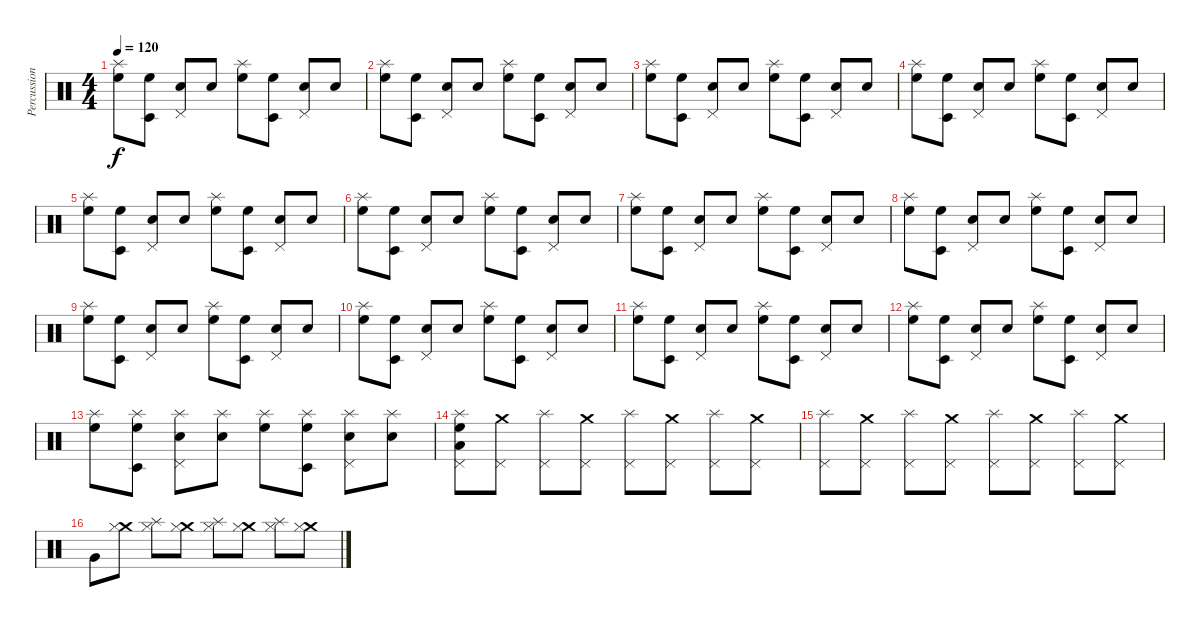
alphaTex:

\track ("Percussion" "Percussion") {instrument percussion}
\staff {score}
\articulation defaults
\ts (4 4)
\tempo 120
\clef neutral
\ks c
("Splash (hit)" "High Floor Tom (hit)").8{dy f} ("Timbale low (hit)" "High Floor Tom (hit)").8 ("Pedal Hi-Hat (hit)" "Electric Snare (hit)").8 "Electric Snare (hit)".8 ("Splash (hit)" "High Floor Tom (hit)").8 ("Timbale low (hit)" "High Floor Tom (hit)").8 ("Pedal Hi-Hat (hit)" "Electric Snare (hit)").8 "Electric Snare (hit)".8 |
("Splash (hit)" "High Floor Tom (hit)").8 ("Timbale low (hit)" "High Floor Tom (hit)").8 ("Pedal Hi-Hat (hit)" "Electric Snare (hit)").8 "Electric Snare (hit)".8 ("Splash (hit)" "High Floor Tom (hit)").8 ("Timbale low (hit)" "High Floor Tom (hit)").8 ("Pedal Hi-Hat (hit)" "Electric Snare (hit)").8 "Electric Snare (hit)".8 |
("Splash (hit)" "High Floor Tom (hit)").8 ("Timbale low (hit)" "High Floor Tom (hit)").8 ("Pedal Hi-Hat (hit)" "Electric Snare (hit)").8 "Electric Snare (hit)".8 ("Splash (hit)" "High Floor Tom (hit)").8 ("Timbale low (hit)" "High Floor Tom (hit)").8 ("Pedal Hi-Hat (hit)" "Electric Snare (hit)").8 "Electric Snare (hit)".8 |
("Splash (hit)" "High Floor Tom (hit)").8 ("Timbale low (hit)" "High Floor Tom (hit)").8 ("Pedal Hi-Hat (hit)" "Electric Snare (hit)").8 "Electric Snare (hit)".8 ("Splash (hit)" "High Floor Tom (hit)").8 ("Timbale low (hit)" "High Floor Tom (hit)").8 ("Pedal Hi-Hat (hit)" "Electric Snare (hit)").8 "Electric Snare (hit)".8 |
("Splash (hit)" "High Floor Tom (hit)").8 ("Timbale low (hit)" "High Floor Tom (hit)").8 ("Pedal Hi-Hat (hit)" "Electric Snare (hit)").8 "Electric Snare (hit)".8 ("Splash (hit)" "High Floor Tom (hit)").8 ("Timbale low (hit)" "High Floor Tom (hit)").8 ("Pedal Hi-Hat (hit)" "Electric Snare (hit)").8 "Electric Snare (hit)".8 |
("Splash (hit)" "High Floor Tom (hit)").8 ("Timbale low (hit)" "High Floor Tom (hit)").8 ("Pedal Hi-Hat (hit)" "Electric Snare (hit)").8 "Electric Snare (hit)".8 ("Splash (hit)" "High Floor Tom (hit)").8 ("Timbale low (hit)" "High Floor Tom (hit)").8 ("Pedal Hi-Hat (hit)" "Electric Snare (hit)").8 "Electric Snare (hit)".8 |
("Splash (hit)" "High Floor Tom (hit)").8 ("Timbale low (hit)" "High Floor Tom (hit)").8 ("Pedal Hi-Hat (hit)" "Electric Snare (hit)").8 "Electric Snare (hit)".8 ("Splash (hit)" "High Floor Tom (hit)").8 ("Timbale low (hit)" "High Floor Tom (hit)").8 ("Pedal Hi-Hat (hit)" "Electric Snare (hit)").8 "Electric Snare (hit)".8 |
("Splash (hit)" "High Floor Tom (hit)").8 ("Timbale low (hit)" "High Floor Tom (hit)").8 ("Pedal Hi-Hat (hit)" "Electric Snare (hit)").8 "Electric Snare (hit)".8 ("Splash (hit)" "High Floor Tom (hit)").8 ("Timbale low (hit)" "High Floor Tom (hit)").8 ("Pedal Hi-Hat (hit)" "Electric Snare (hit)").8 "Electric Snare (hit)".8 |
("Splash (hit)" "High Floor Tom (hit)").8 ("Timbale low (hit)" "High Floor Tom (hit)").8 ("Pedal Hi-Hat (hit)" "Electric Snare (hit)").8 "Electric Snare (hit)".8 ("Splash (hit)" "High Floor Tom (hit)").8 ("Timbale low (hit)" "High Floor Tom (hit)").8 ("Pedal Hi-Hat (hit)" "Electric Snare (hit)").8 "Electric Snare (hit)".8 |
("Splash (hit)" "High Floor Tom (hit)").8 ("Timbale low (hit)" "High Floor Tom (hit)").8 ("Pedal Hi-Hat (hit)" "Electric Snare (hit)").8 "Electric Snare (hit)".8 ("Splash (hit)" "High Floor Tom (hit)").8 ("Timbale low (hit)" "High Floor Tom (hit)").8 ("Pedal Hi-Hat (hit)" "Electric Snare (hit)").8 "Electric Snare (hit)".8 |
("Splash (hit)" "High Floor Tom (hit)").8 ("Timbale low (hit)" "High Floor Tom (hit)").8 ("Pedal Hi-Hat (hit)" "Electric Snare (hit)").8 "Electric Snare (hit)".8 ("Splash (hit)" "High Floor Tom (hit)").8 ("Timbale low (hit)" "High Floor Tom (hit)").8 ("Pedal Hi-Hat (hit)" "Electric Snare (hit)").8 "Electric Snare (hit)".8 |
("Splash (hit)" "High Floor Tom (hit)").8 ("Timbale low (hit)" "High Floor Tom (hit)").8 ("Pedal Hi-Hat (hit)" "Electric Snare (hit)").8 "Electric Snare (hit)".8 ("Splash (hit)" "High Floor Tom (hit)").8 ("Timbale low (hit)" "High Floor Tom (hit)").8 ("Pedal Hi-Hat (hit)" "Electric Snare (hit)").8 "Electric Snare (hit)".8 |
("Splash (hit)" "High Floor Tom (hit)").8 ("Splash (hit)" "Timbale low (hit)" "High Floor Tom (hit)").8 ("Splash (hit)" "Pedal Hi-Hat (hit)" "Electric Snare (hit)").8 ("Splash (hit)" "Electric Snare (hit)").8 ("Splash (hit)" "High Floor Tom (hit)").8 ("Splash (hit)" "Timbale low (hit)" "High Floor Tom (hit)").8 ("Splash (hit)" "Pedal Hi-Hat (hit)" "Electric Snare (hit)").8 ("Splash (hit)" "Electric Snare (hit)").8 |
("Splash (hit)" "Pedal Hi-Hat (hit)" "High Floor Tom (hit)" "Low Tom (hit)").8 ("Crash medium (hit)" "Pedal Hi-Hat (hit)").8 ("Splash (hit)" "Pedal Hi-Hat (hit)").8 ("Crash medium (hit)" "Pedal Hi-Hat (hit)").8 ("Splash (hit)" "Pedal Hi-Hat (hit)").8 ("Crash medium (hit)" "Pedal Hi-Hat (hit)").8 ("Splash (hit)" "Pedal Hi-Hat (hit)").8 ("Crash medium (hit)" "Pedal Hi-Hat (hit)").8 |
("Splash (hit)" "Pedal Hi-Hat (hit)").8 ("Crash medium (hit)" "Pedal Hi-Hat (hit)").8 ("Splash (hit)" "Pedal Hi-Hat (hit)").8 ("Crash medium (hit)" "Pedal Hi-Hat (hit)").8 ("Splash (hit)" "Pedal Hi-Hat (hit)").8 ("Crash medium (hit)" "Pedal Hi-Hat (hit)").8 ("Splash (hit)" "Pedal Hi-Hat (hit)").8 ("Crash medium (hit)" "Pedal Hi-Hat (hit)").8 |
"Very Low Tom (hit)".8 ("Crash medium (hit)" "Hi-Hat (closed)").8 ("Splash (hit)" "Hi-Hat (closed)").8 ("Crash medium (hit)" "Hi-Hat (closed)").8 ("Splash (hit)" "Hi-Hat (closed)").8 ("Crash medium (hit)" "Hi-Hat (closed)").8 ("Splash (hit)" "Hi-Hat (closed)").8 ("Crash medium (hit)" "Hi-Hat (closed)").8
